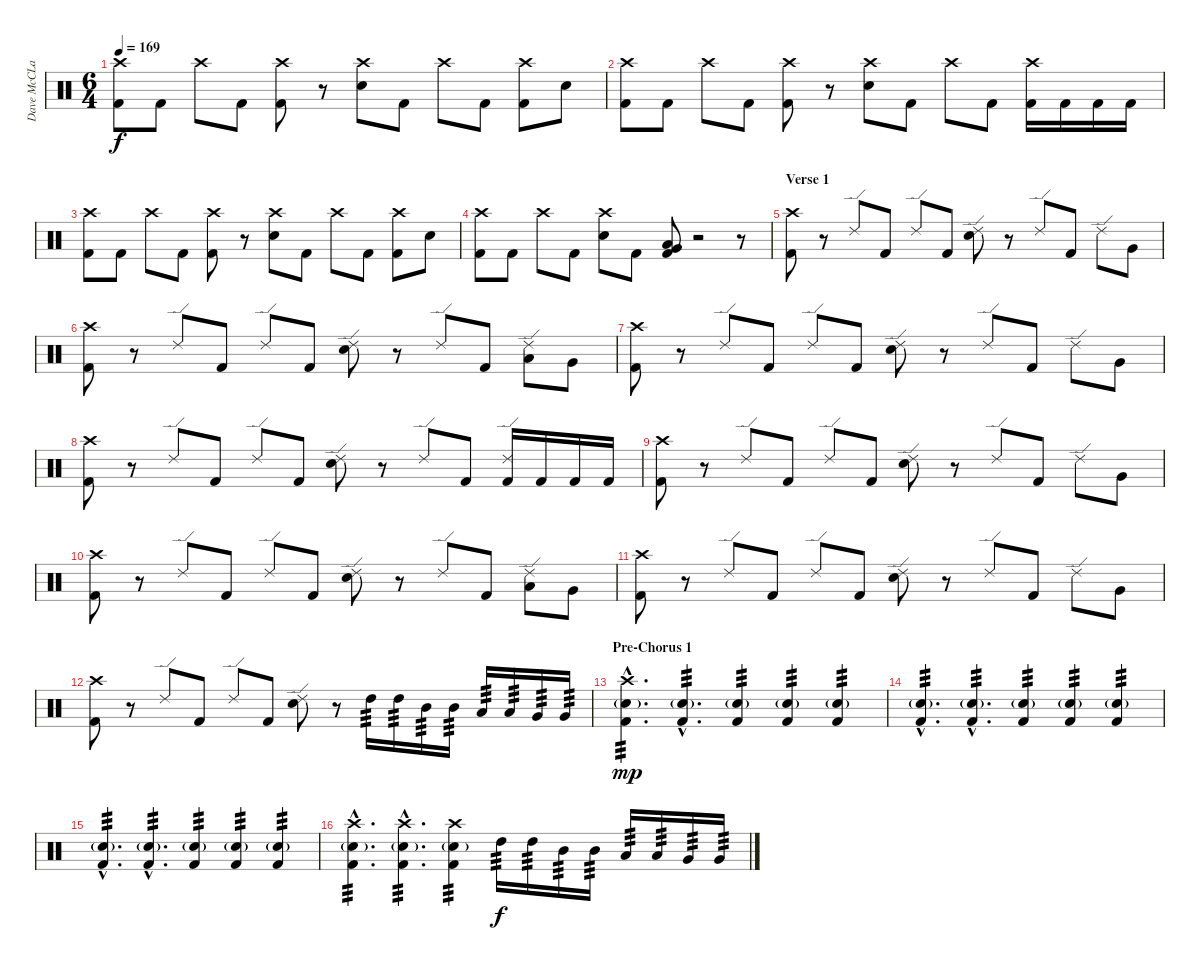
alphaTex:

\track ("Dave McCLain" "Dave McCLa") {instrument percussion}
\staff {score}
\articulation defaults
\ts (6 4)
\tempo 169
\clef neutral
\ks c
("Crash high (hit)" "Kick (hit) 2").8{dy f} "Kick (hit) 2".8 "Crash high (hit)".8 "Kick (hit) 2".8 ("Crash high (hit)" "Kick (hit) 2").8 r.8 ("Crash high (hit)" "Electric Snare (hit)").8 "Kick (hit) 2".8 "Crash high (hit)".8 "Kick (hit) 2".8 ("Crash high (hit)" "Kick (hit) 2").8 "Electric Snare (hit)".8 |
("Crash high (hit)" "Kick (hit) 2").8 "Kick (hit) 2".8 "Crash high (hit)".8 "Kick (hit) 2".8 ("Crash high (hit)" "Kick (hit) 2").8 r.8 ("Crash high (hit)" "Electric Snare (hit)").8 "Kick (hit) 2".8 "Crash high (hit)".8 "Kick (hit) 2".8 ("Crash high (hit)" "Kick (hit) 2").16 "Kick (hit) 2".16 "Kick (hit) 2".16 "Kick (hit) 2".16 |
("Crash high (hit)" "Kick (hit) 2").8 "Kick (hit) 2".8 "Crash high (hit)".8 "Kick (hit) 2".8 ("Crash high (hit)" "Kick (hit) 2").8 r.8 ("Crash high (hit)" "Electric Snare (hit)").8 "Kick (hit) 2".8 "Crash high (hit)".8 "Kick (hit) 2".8 ("Crash high (hit)" "Kick (hit) 2").8 "Electric Snare (hit)".8 |
("Crash high (hit)" "Kick (hit) 2").8 "Kick (hit) 2".8 "Crash high (hit)".8 "Kick (hit) 2".8 ("Crash high (hit)" "Electric Snare (hit)").8 "Kick (hit) 2".8 ("Low Tom (hit)" "Very Low Tom (hit)" "Kick (hit) 2").8 r.2 r.8 |
\section ("" "Verse 1")
("Crash high (hit)" "Kick (hit) 2").8 r.8 "Ride (edge) 2".8 "Kick (hit) 2".8 "Ride (edge) 2".8 "Kick (hit) 2".8 ("Ride (edge) 2" "Electric Snare (hit)").8 r.8 "Ride (edge) 2".8 "Kick (hit) 2".8 "Ride (edge) 2".8 "Very Low Tom (hit)".8 |
("Crash high (hit)" "Kick (hit) 2").8 r.8 "Ride (edge) 2".8 "Kick (hit) 2".8 "Ride (edge) 2".8 "Kick (hit) 2".8 ("Ride (edge) 2" "Electric Snare (hit)").8 r.8 "Ride (edge) 2".8 "Kick (hit) 2".8 ("Ride (edge) 2" "Low Floor Tom (hit)").8 "Very Low Tom (hit)".8 |
("Crash high (hit)" "Kick (hit) 2").8 r.8 "Ride (edge) 2".8 "Kick (hit) 2".8 "Ride (edge) 2".8 "Kick (hit) 2".8 ("Ride (edge) 2" "Electric Snare (hit)").8 r.8 "Ride (edge) 2".8 "Kick (hit) 2".8 "Ride (edge) 2".8 "Very Low Tom (hit)".8 |
("Crash high (hit)" "Kick (hit) 2").8 r.8 "Ride (edge) 2".8 "Kick (hit) 2".8 "Ride (edge) 2".8 "Kick (hit) 2".8 ("Ride (edge) 2" "Electric Snare (hit)").8 r.8 "Ride (edge) 2".8 "Kick (hit) 2".8 ("Ride (edge) 2" "Kick (hit) 2").16 "Kick (hit) 2".16 "Kick (hit) 2".16 "Kick (hit) 2".16 |
("Crash high (hit)" "Kick (hit) 2").8 r.8 "Ride (edge) 2".8 "Kick (hit) 2".8 "Ride (edge) 2".8 "Kick (hit) 2".8 ("Ride (edge) 2" "Electric Snare (hit)").8 r.8 "Ride (edge) 2".8 "Kick (hit) 2".8 "Ride (edge) 2".8 "Very Low Tom (hit)".8 |
("Crash high (hit)" "Kick (hit) 2").8 r.8 "Ride (edge) 2".8 "Kick (hit) 2".8 "Ride (edge) 2".8 "Kick (hit) 2".8 ("Ride (edge) 2" "Electric Snare (hit)").8 r.8 "Ride (edge) 2".8 "Kick (hit) 2".8 ("Ride (edge) 2" "Low Tom (hit)").8 "Very Low Tom (hit)".8 |
("Crash high (hit)" "Kick (hit) 2").8 r.8 "Ride (edge) 2".8 "Kick (hit) 2".8 "Ride (edge) 2".8 "Kick (hit) 2".8 ("Ride (edge) 2" "Electric Snare (hit)").8 r.8 "Ride (edge) 2".8 "Kick (hit) 2".8 "Ride (edge) 2".8 "Very Low Tom (hit)".8 |
("Crash high (hit)" "Kick (hit) 2").8 r.8 "Ride (edge) 2".8 "Kick (hit) 2".8 "Ride (edge) 2".8 "Kick (hit) 2".8 ("Ride (edge) 2" "Electric Snare (hit)").8 r.8 "High Tom (hit)".16{tp 3} "High Tom (hit)".16{tp 3} "Mid Tom (hit)".16{tp 3} "Mid Tom (hit)".16{tp 3} "Low Tom (hit)".16{tp 3} "Low Tom (hit)".16{tp 3} "Very Low Tom (hit)".16{tp 3} "Very Low Tom (hit)".16{tp 3} |
\section ("" "Pre-Chorus 1")
("Crash high (hit)"{hac} "Electric Snare (hit)"{g hac} "Kick (hit) 2"{hac}).4{d tp 3 dy mp} ("Electric Snare (hit)"{g hac} "Kick (hit) 2"{hac}).4{d tp 3} ("Electric Snare (hit)"{g} "Kick (hit) 2").4{tp 3} ("Electric Snare (hit)"{g} "Kick (hit) 2").4{tp 3} ("Electric Snare (hit)"{g} "Kick (hit) 2").4{tp 3} |
("Electric Snare (hit)"{g hac} "Kick (hit) 2"{hac}).4{d tp 3} ("Electric Snare (hit)"{g hac} "Kick (hit) 2"{hac}).4{d tp 3} ("Electric Snare (hit)"{g} "Kick (hit) 2").4{tp 3} ("Electric Snare (hit)"{g} "Kick (hit) 2").4{tp 3} ("Electric Snare (hit)"{g} "Kick (hit) 2").4{tp 3} |
("Electric Snare (hit)"{g hac} "Kick (hit) 2"{hac}).4{d tp 3} ("Electric Snare (hit)"{g hac} "Kick (hit) 2"{hac}).4{d tp 3} ("Electric Snare (hit)"{g} "Kick (hit) 2").4{tp 3} ("Electric Snare (hit)"{g} "Kick (hit) 2").4{tp 3} ("Electric Snare (hit)"{g} "Kick (hit) 2").4{tp 3} |
("Crash high (hit)"{hac} "Electric Snare (hit)"{g hac} "Kick (hit) 2"{hac}).4{d tp 3} ("Crash high (hit)"{hac} "Electric Snare (hit)"{g hac} "Kick (hit) 2"{hac}).4{d tp 3} ("Crash high (hit)" "Electric Snare (hit)"{g} "Kick (hit) 2").4{tp 3} "High Tom (hit)".16{tp 3 dy f} "High Tom (hit)".16{tp 3} "Mid Tom (hit)".16{tp 3} "Mid Tom (hit)".16{tp 3} "Low Tom (hit)".16{tp 3} "Low Tom (hit)".16{tp 3} "Very Low Tom (hit)".16{tp 3} "Very Low Tom (hit)".16{tp 3}
